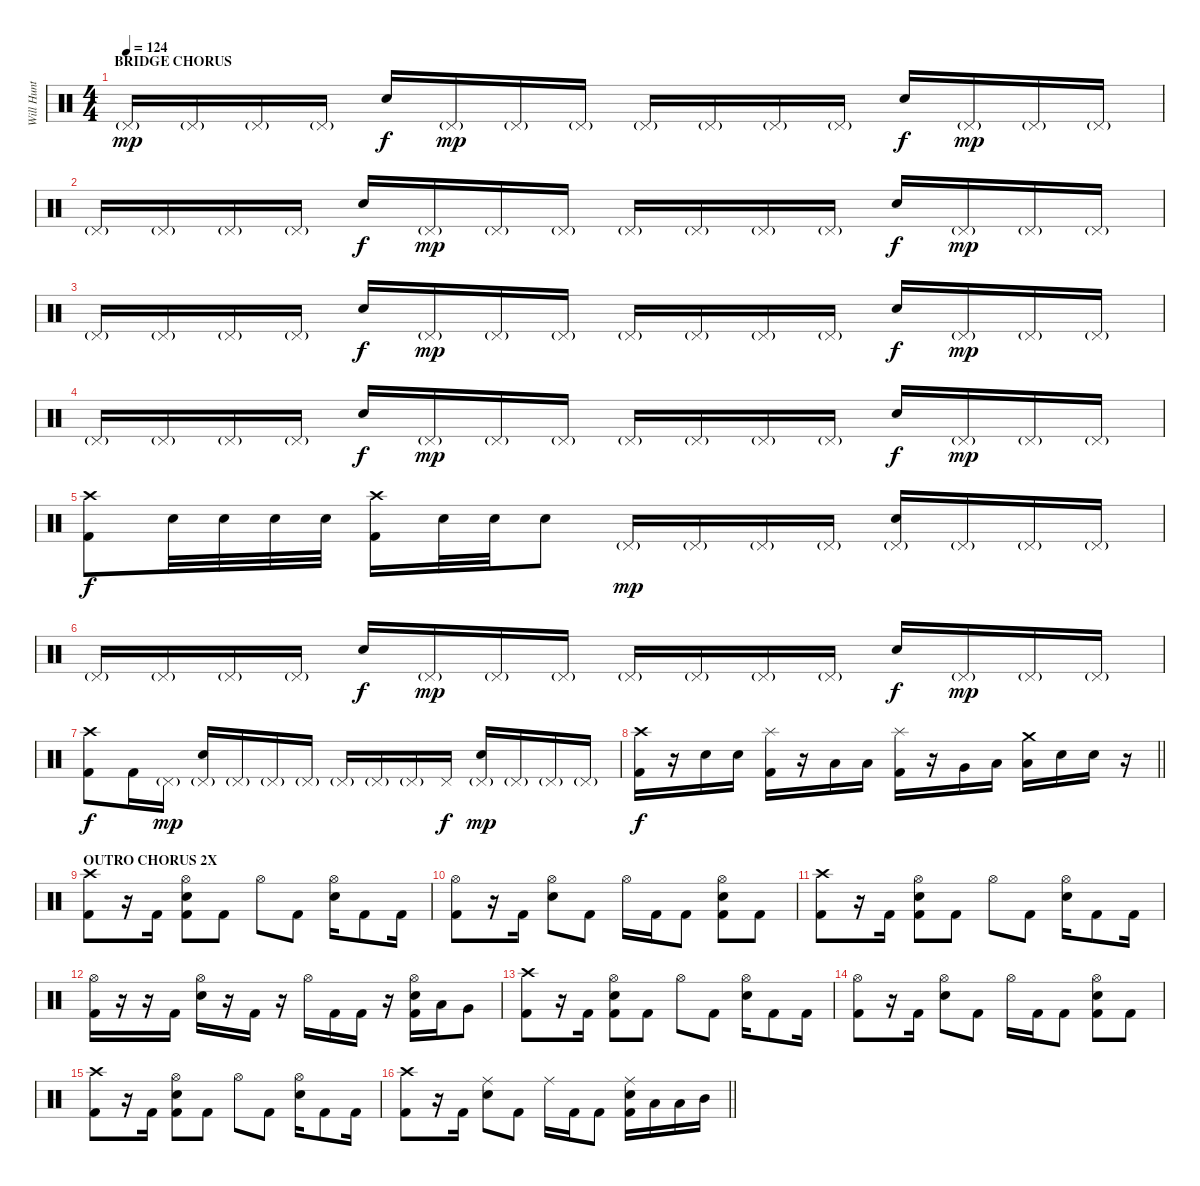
\track ("Will Hunt - drums" "Will Hunt ") {instrument percussion}
\staff {score}
\articulation defaults
\ts (4 4)
\section ("" "BRIDGE CHORUS")
\tempo 124
\clef neutral
\ks c "Pedal Hi-Hat (hit)"{g}.16{dy mp} "Pedal Hi-Hat (hit)"{g}.16 "Pedal Hi-Hat (hit)"{g}.16 "Pedal Hi-Hat (hit)"{g}.16 "Snare (hit) 2".16{dy f} "Pedal Hi-Hat (hit)"{g}.16{dy mp} "Pedal Hi-Hat (hit)"{g}.16 "Pedal Hi-Hat (hit)"{g}.16 "Pedal Hi-Hat (hit)"{g}.16 "Pedal Hi-Hat (hit)"{g}.16 "Pedal Hi-Hat (hit)"{g}.16 "Pedal Hi-Hat (hit)"{g}.16 "Snare (hit) 2".16{dy f} "Pedal Hi-Hat (hit)"{g}.16{dy mp} "Pedal Hi-Hat (hit)"{g}.16 "Pedal Hi-Hat (hit)"{g}.16
|
"Pedal Hi-Hat (hit)"{g}.16 "Pedal Hi-Hat (hit)"{g}.16 "Pedal Hi-Hat (hit)"{g}.16 "Pedal Hi-Hat (hit)"{g}.16 "Snare (hit) 2".16{dy f} "Pedal Hi-Hat (hit)"{g}.16{dy mp} "Pedal Hi-Hat (hit)"{g}.16 "Pedal Hi-Hat (hit)"{g}.16 "Pedal Hi-Hat (hit)"{g}.16 "Pedal Hi-Hat (hit)"{g}.16 "Pedal Hi-Hat (hit)"{g}.16 "Pedal Hi-Hat (hit)"{g}.16 "Snare (hit) 2".16{dy f} "Pedal Hi-Hat (hit)"{g}.16{dy mp} "Pedal Hi-Hat (hit)"{g}.16 "Pedal Hi-Hat (hit)"{g}.16 |
"Pedal Hi-Hat (hit)"{g}.16 "Pedal Hi-Hat (hit)"{g}.16 "Pedal Hi-Hat (hit)"{g}.16 "Pedal Hi-Hat (hit)"{g}.16 "Snare (hit) 2".16{dy f} "Pedal Hi-Hat (hit)"{g}.16{dy mp} "Pedal Hi-Hat (hit)"{g}.16 "Pedal Hi-Hat (hit)"{g}.16 "Pedal Hi-Hat (hit)"{g}.16 "Pedal Hi-Hat (hit)"{g}.16 "Pedal Hi-Hat (hit)"{g}.16 "Pedal Hi-Hat (hit)"{g}.16 "Snare (hit) 2".16{dy f} "Pedal Hi-Hat (hit)"{g}.16{dy mp} "Pedal Hi-Hat (hit)"{g}.16 "Pedal Hi-Hat (hit)"{g}.16 |
"Pedal Hi-Hat (hit)"{g}.16 "Pedal Hi-Hat (hit)"{g}.16 "Pedal Hi-Hat (hit)"{g}.16 "Pedal Hi-Hat (hit)"{g}.16 "Snare (hit) 2".16{dy f} "Pedal Hi-Hat (hit)"{g}.16{dy mp} "Pedal Hi-Hat (hit)"{g}.16 "Pedal Hi-Hat (hit)"{g}.16 "Pedal Hi-Hat (hit)"{g}.16 "Pedal Hi-Hat (hit)"{g}.16 "Pedal Hi-Hat (hit)"{g}.16 "Pedal Hi-Hat (hit)"{g}.16 "Snare (hit) 2".16{dy f} "Pedal Hi-Hat (hit)"{g}.16{dy mp} "Pedal Hi-Hat (hit)"{g}.16 "Pedal Hi-Hat (hit)"{g}.16 |
("Crash high (hit)" "Kick (hit) 2").8{dy f} "Snare (hit) 2".32 "Snare (hit) 2".32 "Snare (hit) 2".32 "Snare (hit) 2".32 ("Crash high (hit)" "Kick (hit) 2").16 "Snare (hit) 2".32 "Snare (hit) 2".32 "Snare (hit) 2".8 "Pedal Hi-Hat (hit)"{g}.16{dy mp} "Pedal Hi-Hat (hit)"{g}.16 "Pedal Hi-Hat (hit)"{g}.16 "Pedal Hi-Hat (hit)"{g}.16 ("Pedal Hi-Hat (hit)"{g} "Snare (hit) 2").16 "Pedal Hi-Hat (hit)"{g}.16 "Pedal Hi-Hat (hit)"{g}.16 "Pedal Hi-Hat (hit)"{g}.16 |
"Pedal Hi-Hat (hit)"{g}.16 "Pedal Hi-Hat (hit)"{g}.16 "Pedal Hi-Hat (hit)"{g}.16 "Pedal Hi-Hat (hit)"{g}.16 "Snare (hit) 2".16{dy f} "Pedal Hi-Hat (hit)"{g}.16{dy mp} "Pedal Hi-Hat (hit)"{g}.16 "Pedal Hi-Hat (hit)"{g}.16 "Pedal Hi-Hat (hit)"{g}.16 "Pedal Hi-Hat (hit)"{g}.16 "Pedal Hi-Hat (hit)"{g}.16 "Pedal Hi-Hat (hit)"{g}.16 "Snare (hit) 2".16{dy f} "Pedal Hi-Hat (hit)"{g}.16{dy mp} "Pedal Hi-Hat (hit)"{g}.16 "Pedal Hi-Hat (hit)"{g}.16 |
("Crash high (hit)" "Kick (hit) 2").8{dy f} "Kick (hit) 2".16 "Pedal Hi-Hat (hit)"{g}.16{dy mp} ("Pedal Hi-Hat (hit)"{g} "Snare (hit) 2").16 "Pedal Hi-Hat (hit)"{g}.16 "Pedal Hi-Hat (hit)"{g}.16 "Pedal Hi-Hat (hit)"{g}.16 "Pedal Hi-Hat (hit)"{g}.16 "Pedal Hi-Hat (hit)"{g}.16 "Pedal Hi-Hat (hit)"{g}.16 "Pedal Hi-Hat (hit)".16{dy f} ("Pedal Hi-Hat (hit)"{g} "Snare (hit) 2").16{dy mp} "Pedal Hi-Hat (hit)"{g}.16 "Pedal Hi-Hat (hit)"{g}.16 "Pedal Hi-Hat (hit)"{g}.16 |
\barLineRight lightlight
("Crash high (hit)" "Kick (hit) 2").16{dy f} r.16 "Snare (hit) 2".16 "Snare (hit) 2".16 ("Splash (hit)" "Kick (hit) 2").16 r.16 "Low Tom (hit)".16 "Low Tom (hit)".16 ("Splash (hit)" "Kick (hit) 2").16 r.16 "Very Low Tom (hit)".16 "Low Tom (hit)".16 ("Crash medium (hit)" "Low Tom (hit)").16 "Snare (hit) 2".16 "Snare (hit) 2".16 r.16 |
\section ("" "OUTRO CHORUS 2X")
("Crash high (hit)" "Kick (hit) 2").8 r.16 "Kick (hit) 2".16 ("Hi-Hat (open)" "Snare (hit) 2" "Kick (hit) 2").8 "Kick (hit) 2".8 "Hi-Hat (open)".8 "Kick (hit) 2".8 ("Hi-Hat (open)" "Snare (hit) 2").16 "Kick (hit) 2".8 "Kick (hit) 2".16 |
("Hi-Hat (open)" "Kick (hit) 2").8 r.16 "Kick (hit) 2".16 ("Hi-Hat (open)" "Snare (hit) 2").8 "Kick (hit) 2".8 "Hi-Hat (open)".16 "Kick (hit) 2".16 "Kick (hit) 2".8 ("Hi-Hat (open)" "Snare (hit) 2" "Kick (hit) 2").8 "Kick (hit) 2".8 |
("Crash high (hit)" "Kick (hit) 2").8 r.16 "Kick (hit) 2".16 ("Hi-Hat (open)" "Snare (hit) 2" "Kick (hit) 2").8 "Kick (hit) 2".8 "Hi-Hat (open)".8 "Kick (hit) 2".8 ("Hi-Hat (open)" "Snare (hit) 2").16 "Kick (hit) 2".8 "Kick (hit) 2".16 |
("Hi-Hat (open)" "Kick (hit) 2").16 r.16 r.16 "Kick (hit) 2".16 ("Hi-Hat (open)" "Snare (hit) 2").16 r.16 "Kick (hit) 2".16 r.16 "Hi-Hat (open)".16 "Kick (hit) 2".16 "Kick (hit) 2".16 r.16 ("Hi-Hat (open)" "Snare (hit) 2" "Kick (hit) 2").16 "Low Tom (hit)".16 "Very Low Tom (hit)".8 |
("Crash high (hit)" "Kick (hit) 2").8 r.16 "Kick (hit) 2".16 ("Hi-Hat (open)" "Snare (hit) 2" "Kick (hit) 2").8 "Kick (hit) 2".8 "Hi-Hat (open)".8 "Kick (hit) 2".8 ("Hi-Hat (open)" "Snare (hit) 2").16 "Kick (hit) 2".8 "Kick (hit) 2".16 |
("Hi-Hat (open)" "Kick (hit) 2").8 r.16 "Kick (hit) 2".16 ("Hi-Hat (open)" "Snare (hit) 2").8 "Kick (hit) 2".8 "Hi-Hat (open)".16 "Kick (hit) 2".16 "Kick (hit) 2".8 ("Hi-Hat (open)" "Snare (hit) 2" "Kick (hit) 2").8 "Kick (hit) 2".8 |
("Crash high (hit)" "Kick (hit) 2").8 r.16 "Kick (hit) 2".16 ("Hi-Hat (open)" "Snare (hit) 2" "Kick (hit) 2").8 "Kick (hit) 2".8 "Hi-Hat (open)".8 "Kick (hit) 2".8 ("Hi-Hat (open)" "Snare (hit) 2").16 "Kick (hit) 2".8 "Kick (hit) 2".16 |
\barLineRight lightlight
("Crash high (hit)" "Kick (hit) 2").8 r.16 "Kick (hit) 2".16 ("Ride (middle)" "Snare (hit) 2").8 "Kick (hit) 2".8 "Ride (middle)".16 "Kick (hit) 2".16 "Kick (hit) 2".8 ("Ride (middle)" "Snare (hit) 2" "Kick (hit) 2").16 "Low Tom (hit)".16 "Low Tom (hit)".16 "Mid Tom (hit)".16
